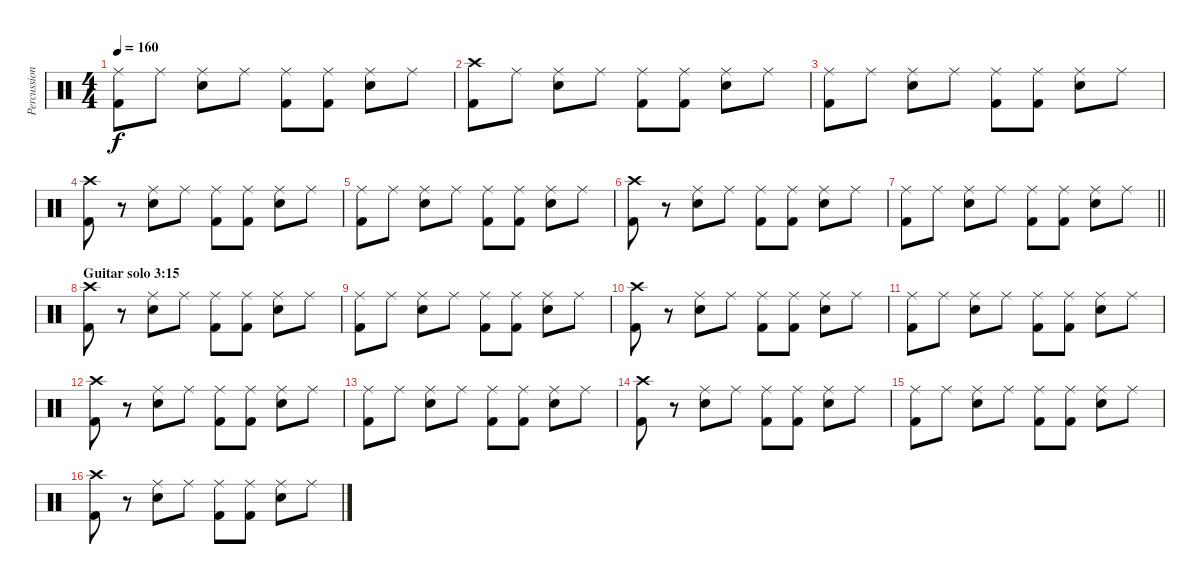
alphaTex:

\track ("Percussion - album" "Percussion") {mute instrument percussion}
\staff {score}
\articulation defaults
\ts (4 4)
\tempo 160
\clef neutral
\ks c
("Ride (middle)" "Kick (hit) 2").8{dy f} "Ride (middle)".8 ("Ride (middle)" "Snare (hit) 2").8 "Ride (middle)".8 ("Ride (middle)" "Kick (hit) 2").8 ("Ride (middle)" "Kick (hit) 2").8 ("Ride (middle)" "Snare (hit) 2").8 "Ride (middle)".8 |
("Crash high (hit)" "Kick (hit) 2").8 "Ride (middle)".8 ("Ride (middle)" "Snare (hit) 2").8 "Ride (middle)".8 ("Ride (middle)" "Kick (hit) 2").8 ("Ride (middle)" "Kick (hit) 2").8 ("Ride (middle)" "Snare (hit) 2").8 "Ride (middle)".8 |
("Ride (middle)" "Kick (hit) 2").8 "Ride (middle)".8 ("Ride (middle)" "Snare (hit) 2").8 "Ride (middle)".8 ("Ride (middle)" "Kick (hit) 2").8 ("Ride (middle)" "Kick (hit) 2").8 ("Ride (middle)" "Snare (hit) 2").8 "Ride (middle)".8 |
("Crash high (hit)" "Kick (hit) 2").8 r.8 ("Ride (middle)" "Snare (hit) 2").8 "Ride (middle)".8 ("Ride (middle)" "Kick (hit) 2").8 ("Ride (middle)" "Kick (hit) 2").8 ("Ride (middle)" "Snare (hit) 2").8 "Ride (middle)".8 |
("Ride (middle)" "Kick (hit) 2").8 "Ride (middle)".8 ("Ride (middle)" "Snare (hit) 2").8 "Ride (middle)".8 ("Ride (middle)" "Kick (hit) 2").8 ("Ride (middle)" "Kick (hit) 2").8 ("Ride (middle)" "Snare (hit) 2").8 "Ride (middle)".8 |
("Crash high (hit)" "Kick (hit) 2").8 r.8 ("Ride (middle)" "Snare (hit) 2").8 "Ride (middle)".8 ("Ride (middle)" "Kick (hit) 2").8 ("Ride (middle)" "Kick (hit) 2").8 ("Ride (middle)" "Snare (hit) 2").8 "Ride (middle)".8 |
\barLineRight lightlight
("Ride (middle)" "Kick (hit) 2").8 "Ride (middle)".8 ("Ride (middle)" "Snare (hit) 2").8 "Ride (middle)".8 ("Ride (middle)" "Kick (hit) 2").8 ("Ride (middle)" "Kick (hit) 2").8 ("Ride (middle)" "Snare (hit) 2").8 "Ride (middle)".8 |
\section ("" "Guitar solo 3:15")
("Crash high (hit)" "Kick (hit) 2").8 r.8 ("Ride (middle)" "Snare (hit) 2").8 "Ride (middle)".8 ("Ride (middle)" "Kick (hit) 2").8 ("Ride (middle)" "Kick (hit) 2").8 ("Ride (middle)" "Snare (hit) 2").8 "Ride (middle)".8 |
("Ride (middle)" "Kick (hit) 2").8 "Ride (middle)".8 ("Ride (middle)" "Snare (hit) 2").8 "Ride (middle)".8 ("Ride (middle)" "Kick (hit) 2").8 ("Ride (middle)" "Kick (hit) 2").8 ("Ride (middle)" "Snare (hit) 2").8 "Ride (middle)".8 |
("Crash high (hit)" "Kick (hit) 2").8 r.8 ("Ride (middle)" "Snare (hit) 2").8 "Ride (middle)".8 ("Ride (middle)" "Kick (hit) 2").8 ("Ride (middle)" "Kick (hit) 2").8 ("Ride (middle)" "Snare (hit) 2").8 "Ride (middle)".8 |
("Ride (middle)" "Kick (hit) 2").8 "Ride (middle)".8 ("Ride (middle)" "Snare (hit) 2").8 "Ride (middle)".8 ("Ride (middle)" "Kick (hit) 2").8 ("Ride (middle)" "Kick (hit) 2").8 ("Ride (middle)" "Snare (hit) 2").8 "Ride (middle)".8 |
("Crash high (hit)" "Kick (hit) 2").8 r.8 ("Ride (middle)" "Snare (hit) 2").8 "Ride (middle)".8 ("Ride (middle)" "Kick (hit) 2").8 ("Ride (middle)" "Kick (hit) 2").8 ("Ride (middle)" "Snare (hit) 2").8 "Ride (middle)".8 |
("Ride (middle)" "Kick (hit) 2").8 "Ride (middle)".8 ("Ride (middle)" "Snare (hit) 2").8 "Ride (middle)".8 ("Ride (middle)" "Kick (hit) 2").8 ("Ride (middle)" "Kick (hit) 2").8 ("Ride (middle)" "Snare (hit) 2").8 "Ride (middle)".8 |
("Crash high (hit)" "Kick (hit) 2").8 r.8 ("Ride (middle)" "Snare (hit) 2").8 "Ride (middle)".8 ("Ride (middle)" "Kick (hit) 2").8 ("Ride (middle)" "Kick (hit) 2").8 ("Ride (middle)" "Snare (hit) 2").8 "Ride (middle)".8 |
("Ride (middle)" "Kick (hit) 2").8 "Ride (middle)".8 ("Ride (middle)" "Snare (hit) 2").8 "Ride (middle)".8 ("Ride (middle)" "Kick (hit) 2").8 ("Ride (middle)" "Kick (hit) 2").8 ("Ride (middle)" "Snare (hit) 2").8 "Ride (middle)".8 |
("Crash high (hit)" "Kick (hit) 2").8 r.8 ("Ride (middle)" "Snare (hit) 2").8 "Ride (middle)".8 ("Ride (middle)" "Kick (hit) 2").8 ("Ride (middle)" "Kick (hit) 2").8 ("Ride (middle)" "Snare (hit) 2").8 "Ride (middle)".8
